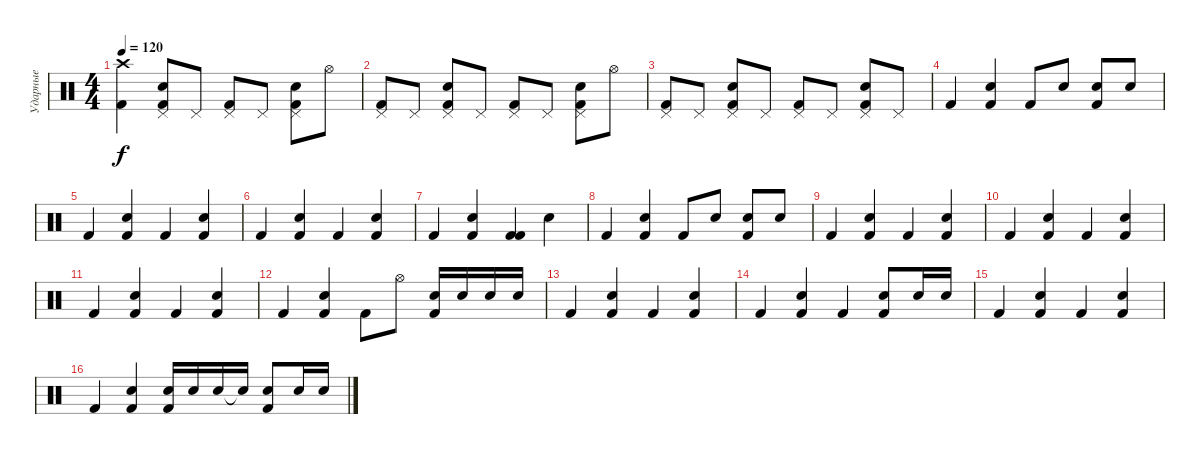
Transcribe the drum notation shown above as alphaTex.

\track ("Ударные" "Ударные") {instrument percussion}
\staff {score}
\articulation defaults
\ts (4 4)
\tempo 120
\clef neutral
\ks c
("Crash high (hit)" "Kick (hit) 2").4{dy f} ("Snare (hit) 2" "Pedal Hi-Hat (hit)" "Kick (hit) 2").8 "Pedal Hi-Hat (hit)".8 ("Pedal Hi-Hat (hit)" "Kick (hit) 2").8 "Pedal Hi-Hat (hit)".8 ("Pedal Hi-Hat (hit)" "Snare (hit) 2" "Kick (hit) 2").8 "Hi-Hat (open)".8 |
("Pedal Hi-Hat (hit)" "Kick (hit) 2").8 "Pedal Hi-Hat (hit)".8 ("Pedal Hi-Hat (hit)" "Snare (hit) 2" "Kick (hit) 2").8 "Pedal Hi-Hat (hit)".8 ("Pedal Hi-Hat (hit)" "Kick (hit) 2").8 "Pedal Hi-Hat (hit)".8 ("Pedal Hi-Hat (hit)" "Snare (hit) 2" "Kick (hit) 2").8 "Hi-Hat (open)".8 |
("Pedal Hi-Hat (hit)" "Kick (hit) 2").8 "Pedal Hi-Hat (hit)".8 ("Pedal Hi-Hat (hit)" "Snare (hit) 2" "Kick (hit) 2").8 "Pedal Hi-Hat (hit)".8 ("Pedal Hi-Hat (hit)" "Kick (hit) 2").8 "Pedal Hi-Hat (hit)".8 ("Pedal Hi-Hat (hit)" "Snare (hit) 2" "Kick (hit) 2").8 "Pedal Hi-Hat (hit)".8 |
"Kick (hit) 2".4 ("Kick (hit) 2" "Snare (hit) 2").4 "Kick (hit) 2".8 "Snare (hit) 2".8 ("Kick (hit) 2" "Snare (hit) 2").8 "Snare (hit) 2".8 |
"Kick (hit) 2".4 ("Kick (hit) 2" "Snare (hit) 2").4 "Kick (hit) 2".4 ("Kick (hit) 2" "Snare (hit) 2").4 |
"Kick (hit) 2".4 ("Kick (hit) 2" "Snare (hit) 2").4 "Kick (hit) 2".4 ("Kick (hit) 2" "Snare (hit) 2").4 |
"Kick (hit) 2".4 ("Kick (hit) 2" "Snare (hit) 2").4 ("Kick (hit) 2" "Kick (hit) 2").4 "Snare (hit) 2".4 |
"Kick (hit) 2".4 ("Kick (hit) 2" "Snare (hit) 2").4 "Kick (hit) 2".8 "Snare (hit) 2".8 ("Kick (hit) 2" "Snare (hit) 2").8 "Snare (hit) 2".8 |
"Kick (hit) 2".4 ("Kick (hit) 2" "Snare (hit) 2").4 "Kick (hit) 2".4 ("Kick (hit) 2" "Snare (hit) 2").4 |
"Kick (hit) 2".4 ("Kick (hit) 2" "Snare (hit) 2").4 "Kick (hit) 2".4 ("Kick (hit) 2" "Snare (hit) 2").4 |
"Kick (hit) 2".4 ("Kick (hit) 2" "Snare (hit) 2").4 "Kick (hit) 2".4 ("Kick (hit) 2" "Snare (hit) 2").4 |
"Kick (hit) 2".4 ("Kick (hit) 2" "Snare (hit) 2").4 "Kick (hit) 2".8 "Hi-Hat (open)".8 ("Kick (hit) 2" "Snare (hit) 2").16 "Snare (hit) 2".16 "Snare (hit) 2".16 "Snare (hit) 2".16 |
"Kick (hit) 2".4 ("Kick (hit) 2" "Snare (hit) 2").4 "Kick (hit) 2".4 ("Kick (hit) 2" "Snare (hit) 2").4 |
"Kick (hit) 2".4 ("Kick (hit) 2" "Snare (hit) 2").4 "Kick (hit) 2".4 ("Kick (hit) 2" "Snare (hit) 2").8 "Snare (hit) 2".16 "Snare (hit) 2".16 |
"Kick (hit) 2".4 ("Kick (hit) 2" "Snare (hit) 2").4 "Kick (hit) 2".4 ("Kick (hit) 2" "Snare (hit) 2").4 |
"Kick (hit) 2".4 ("Kick (hit) 2" "Snare (hit) 2").4 ("Snare (hit) 2" "Kick (hit) 2").16 "Snare (hit) 2".16 "Snare (hit) 2".16 "Snare (hit) 2"{t}.16 ("Snare (hit) 2" "Kick (hit) 2").8 "Snare (hit) 2".16 "Snare (hit) 2".16
